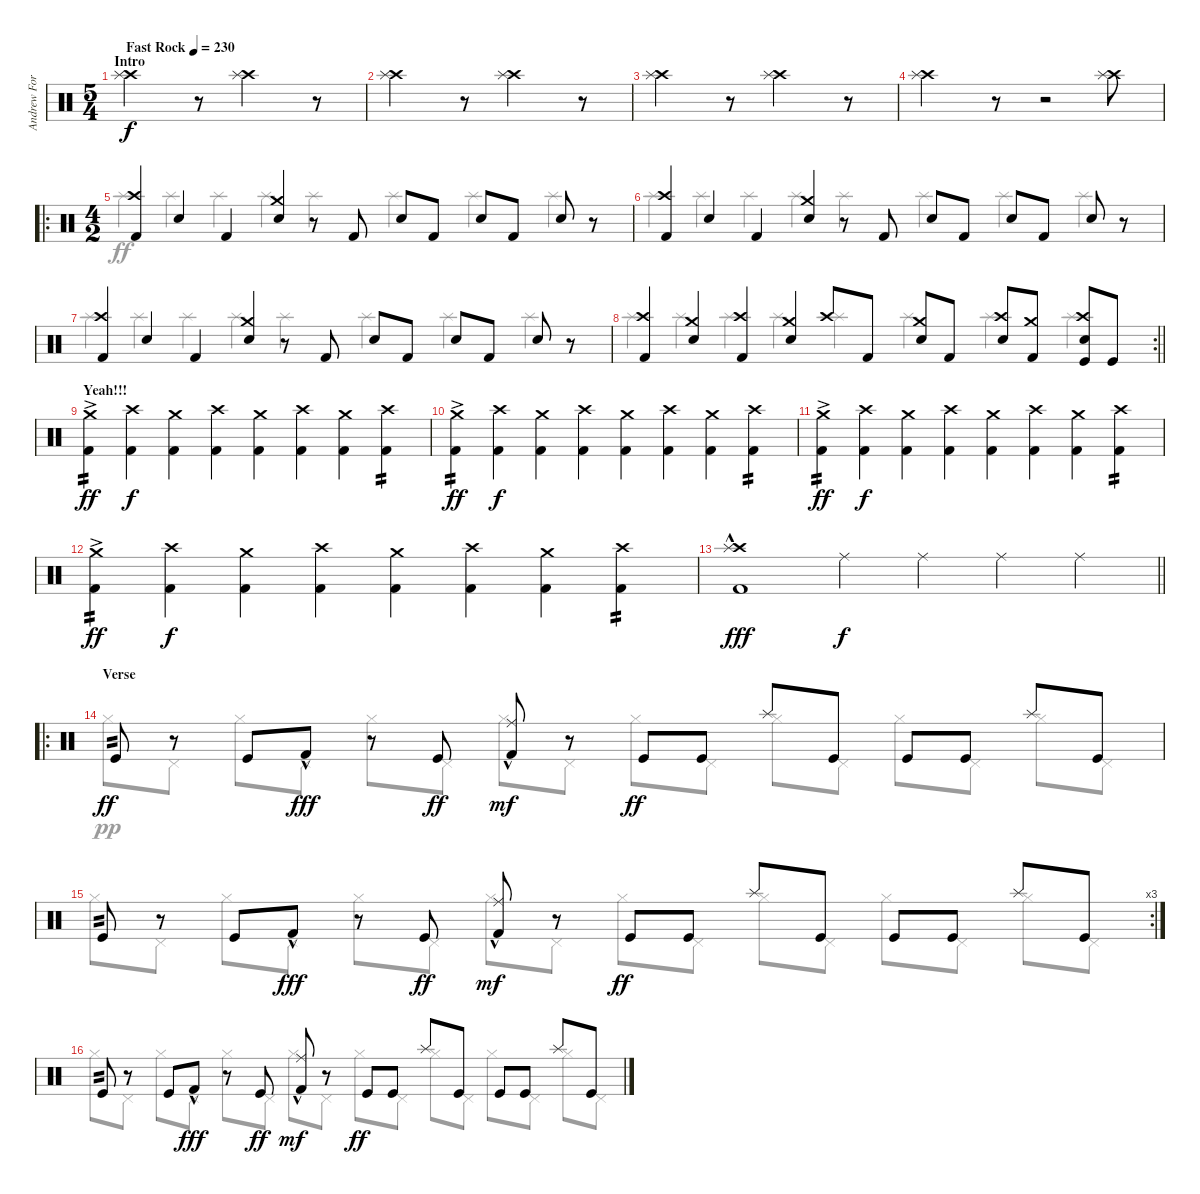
\track ("Andrew Forsman" "Andrew For") {instrument percussion}
\staff {score}
\articulation defaults
\voice
\ts (5 4)
\section ("" "Intro")
\tempo (230 "Fast Rock")
\clef neutral
\ks c
("Crash high (hit)" "Splash (hit)").2{dy f} r.8 ("Crash high (hit)" "Splash (hit)").2 r.8 |
("Crash high (hit)" "Splash (hit)").2 r.8 ("Crash high (hit)" "Splash (hit)").2 r.8 |
("Crash high (hit)" "Splash (hit)").2 r.8 ("Crash high (hit)" "Splash (hit)").2 r.8 |
("Crash high (hit)" "Splash (hit)").2 r.8 r.2 ("Crash high (hit)" "Splash (hit)").8 |
\ro
\ts (4 2)
("Kick (hit) 2" "Crash high (hit)").4 "Snare (hit) 2".4 "Kick (hit) 2".4 ("Snare (hit) 2" "Crash medium (hit)").4 r.8 "Kick (hit) 2".8 "Snare (hit) 2".8 "Kick (hit) 2".8 "Snare (hit) 2".8 "Kick (hit) 2".8 "Snare (hit) 2".8 r.8 |
("Kick (hit) 2" "Crash high (hit)").4 "Snare (hit) 2".4 "Kick (hit) 2".4 ("Snare (hit) 2" "Crash medium (hit)").4 r.8 "Kick (hit) 2".8 "Snare (hit) 2".8 "Kick (hit) 2".8 "Snare (hit) 2".8 "Kick (hit) 2".8 "Snare (hit) 2".8 r.8 |
("Kick (hit) 2" "Crash high (hit)").4 "Snare (hit) 2".4 "Kick (hit) 2".4 ("Snare (hit) 2" "Crash medium (hit)").4 r.8 "Kick (hit) 2".8 "Snare (hit) 2".8 "Kick (hit) 2".8 "Snare (hit) 2".8 "Kick (hit) 2".8 "Snare (hit) 2".8 r.8 |
\rc 2
\barLineRight lightlight
("Kick (hit) 2" "Crash high (hit)").4 ("Snare (hit) 2" "Crash medium (hit)").4 ("Kick (hit) 2" "Crash high (hit)").4 ("Snare (hit) 2" "Crash medium (hit)").4 "Crash high (hit)".8 "Kick (hit) 2".8 ("Snare (hit) 2" "Crash medium (hit)").8 "Kick (hit) 2".8 ("Snare (hit) 2" "Crash high (hit)").8 ("Kick (hit) 2" "Crash medium (hit)").8 ("Kick (hit)" "Snare (hit) 2" "Crash high (hit)").8 "Kick (hit)".8 |
\section ("" "Yeah!!!")
("Kick (hit) 2"{ac} "Crash medium (hit)"{ac}).4{tp 2 dy ff} ("Kick (hit) 2" "Crash high (hit)").4{dy f} ("Kick (hit) 2" "Crash medium (hit)").4 ("Kick (hit) 2" "Crash high (hit)").4 ("Kick (hit) 2" "Crash medium (hit)").4 ("Kick (hit) 2" "Crash high (hit)").4 ("Kick (hit) 2" "Crash medium (hit)").4 ("Kick (hit) 2" "Crash high (hit)").4{tp 2} |
("Kick (hit) 2"{ac} "Crash medium (hit)"{ac}).4{tp 2 dy ff} ("Kick (hit) 2" "Crash high (hit)").4{dy f} ("Kick (hit) 2" "Crash medium (hit)").4 ("Kick (hit) 2" "Crash high (hit)").4 ("Kick (hit) 2" "Crash medium (hit)").4 ("Kick (hit) 2" "Crash high (hit)").4 ("Kick (hit) 2" "Crash medium (hit)").4 ("Kick (hit) 2" "Crash high (hit)").4{tp 2} |
("Kick (hit) 2"{ac} "Crash medium (hit)"{ac}).4{tp 2 dy ff} ("Kick (hit) 2" "Crash high (hit)").4{dy f} ("Kick (hit) 2" "Crash medium (hit)").4 ("Kick (hit) 2" "Crash high (hit)").4 ("Kick (hit) 2" "Crash medium (hit)").4 ("Kick (hit) 2" "Crash high (hit)").4 ("Kick (hit) 2" "Crash medium (hit)").4 ("Kick (hit) 2" "Crash high (hit)").4{tp 2} |
("Kick (hit) 2"{ac} "Crash medium (hit)"{ac}).4{tp 2 dy ff} ("Kick (hit) 2" "Crash high (hit)").4{dy f} ("Kick (hit) 2" "Crash medium (hit)").4 ("Kick (hit) 2" "Crash high (hit)").4 ("Kick (hit) 2" "Crash medium (hit)").4 ("Kick (hit) 2" "Crash high (hit)").4 ("Kick (hit) 2" "Crash medium (hit)").4 ("Kick (hit) 2" "Crash high (hit)").4{tp 2} |
\barLineRight lightlight
("Kick (hit) 2"{hac} "Crash high (hit)" "Splash (hit)").1{dy fff} "Ride (middle)".4{dy f} "Ride (middle)".4 "Ride (middle)".4 "Ride (middle)".4 |
\ro
\section ("" "Verse")
"Kick (hit)".8{tp 2 dy ff} r.8 "Kick (hit)".8 "Kick (hit) 2"{hac}.8{dy fff} r.8 "Kick (hit)".8{dy ff} ("Kick (hit) 2"{hac} "Ride (middle)").8{dy mf} r.8 "Kick (hit)".8{dy ff} "Kick (hit)".8 "Splash (hit)".8 "Kick (hit)".8 "Kick (hit)".8 "Kick (hit)".8 "Splash (hit)".8 "Kick (hit)".8 |
\rc 3 "Kick (hit)".8{tp 2}
r.8 "Kick (hit)".8 "Kick (hit) 2"{hac}.8{dy fff} r.8 "Kick (hit)".8{dy ff} ("Kick (hit) 2"{hac} "Ride (middle)").8{dy mf} r.8 "Kick (hit)".8{dy ff} "Kick (hit)".8 "Splash (hit)".8 "Kick (hit)".8 "Kick (hit)".8 "Kick (hit)".8 "Splash (hit)".8 "Kick (hit)".8 |
"Kick (hit)".8{tp 2} r.8 "Kick (hit)".8 "Kick (hit) 2"{hac}.8{dy fff} r.8 "Kick (hit)".8{dy ff} ("Kick (hit) 2"{hac} "Ride (middle)").8{dy mf} r.8 "Kick (hit)".8{dy ff} "Kick (hit)".8 "Splash (hit)".8 "Kick (hit)".8 "Kick (hit)".8 "Kick (hit)".8 "Splash (hit)".8 "Kick (hit)".8
\voice
\clef neutral
\ottava regular
\simile none
\ks c
|
|
|
|
"Splash (hit)".4 "Splash (hit)".4 "Splash (hit)".4 "Splash (hit)".4 "Splash (hit)".4 "Splash (hit)".4 "Splash (hit)".4 "Splash (hit)".4 |
"Splash (hit)".4 "Splash (hit)".4 "Splash (hit)".4 "Splash (hit)".4 "Splash (hit)".4 "Splash (hit)".4 "Splash (hit)".4 "Splash (hit)".4 |
"Splash (hit)".4 "Splash (hit)".4 "Splash (hit)".4 "Splash (hit)".4 "Splash (hit)".4 "Splash (hit)".4 "Splash (hit)".4 "Splash (hit)".4 |
\barLineRight lightlight "Splash (hit)".4 "Splash (hit)".4 "Splash (hit)".4 "Splash (hit)".4 "Splash (hit)".4 "Splash (hit)".4 "Splash (hit)".4 "Splash (hit)".4
|
|
|
|
|
\barLineRight lightlight
|
"Hi-Hat (closed)".8{dy pp} "Pedal Hi-Hat (hit)".8 "Hi-Hat (closed)".8 "Pedal Hi-Hat (hit)".8 "Hi-Hat (closed)".8 "Pedal Hi-Hat (hit)".8 "Hi-Hat (closed)".8 "Pedal Hi-Hat (hit)".8 "Hi-Hat (closed)".8 "Pedal Hi-Hat (hit)".8 "Hi-Hat (closed)".8 "Pedal Hi-Hat (hit)".8 "Hi-Hat (closed)".8 "Pedal Hi-Hat (hit)".8 "Hi-Hat (closed)".8 "Pedal Hi-Hat (hit)".8 |
"Hi-Hat (closed)".8 "Pedal Hi-Hat (hit)".8 "Hi-Hat (closed)".8 "Pedal Hi-Hat (hit)".8 "Hi-Hat (closed)".8 "Pedal Hi-Hat (hit)".8 "Hi-Hat (closed)".8 "Pedal Hi-Hat (hit)".8 "Hi-Hat (closed)".8 "Pedal Hi-Hat (hit)".8 "Hi-Hat (closed)".8 "Pedal Hi-Hat (hit)".8 "Hi-Hat (closed)".8 "Pedal Hi-Hat (hit)".8 "Hi-Hat (closed)".8 "Pedal Hi-Hat (hit)".8 |
"Hi-Hat (closed)".8 "Pedal Hi-Hat (hit)".8 "Hi-Hat (closed)".8 "Pedal Hi-Hat (hit)".8 "Hi-Hat (closed)".8 "Pedal Hi-Hat (hit)".8 "Hi-Hat (closed)".8 "Pedal Hi-Hat (hit)".8 "Hi-Hat (closed)".8 "Pedal Hi-Hat (hit)".8 "Hi-Hat (closed)".8 "Pedal Hi-Hat (hit)".8 "Hi-Hat (closed)".8 "Pedal Hi-Hat (hit)".8 "Hi-Hat (closed)".8 "Pedal Hi-Hat (hit)".8
